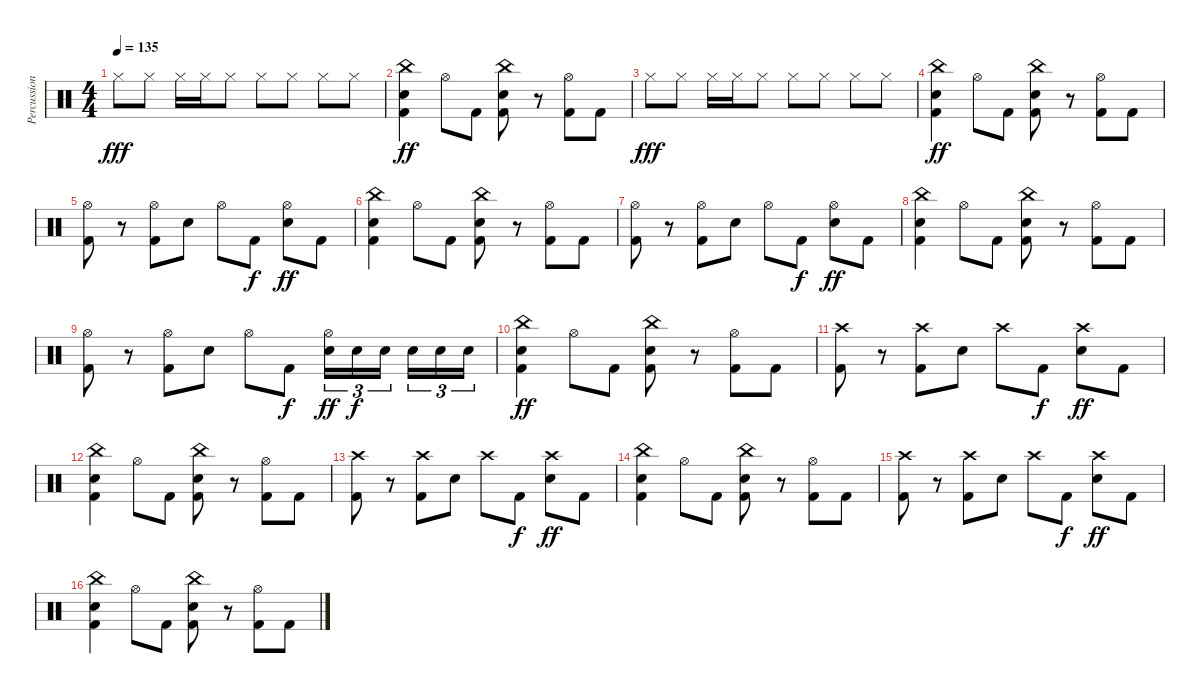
\track ("Percussion" "Percussion") {instrument percussion}
\staff {score}
\articulation defaults
\ts (4 4)
\tempo 135
\clef neutral
\ks c "Hi-Hat (closed)".8{dy fff} "Hi-Hat (closed)".8 "Hi-Hat (closed)".16 "Hi-Hat (closed)".16 "Hi-Hat (closed)".8 "Hi-Hat (closed)".8 "Hi-Hat (closed)".8 "Hi-Hat (closed)".8 "Hi-Hat (closed)".8
|
("China (hit)" "Snare (hit) 2" "Kick (hit) 2").4{dy ff} "Hi-Hat (open)".8 "Kick (hit) 2".8 ("China (hit)" "Snare (hit) 2" "Kick (hit) 2").8 r.8 ("Hi-Hat (open)" "Kick (hit) 2").8 "Kick (hit) 2".8 |
"Hi-Hat (closed)".8{dy fff} "Hi-Hat (closed)".8 "Hi-Hat (closed)".16 "Hi-Hat (closed)".16 "Hi-Hat (closed)".8 "Hi-Hat (closed)".8 "Hi-Hat (closed)".8 "Hi-Hat (closed)".8 "Hi-Hat (closed)".8 |
("China (hit)" "Snare (hit) 2" "Kick (hit) 2").4{dy ff} "Hi-Hat (open)".8 "Kick (hit) 2".8 ("China (hit)" "Snare (hit) 2" "Kick (hit) 2").8 r.8 ("Hi-Hat (open)" "Kick (hit) 2").8 "Kick (hit) 2".8 |
("Hi-Hat (open)" "Kick (hit) 2").8 r.8 ("Hi-Hat (open)" "Kick (hit) 2").8 "Electric Snare (hit)".8 "Hi-Hat (open)".8 "Kick (hit) 2".8{dy f} ("Hi-Hat (open)" "Electric Snare (hit)").8{dy ff} "Kick (hit) 2".8 |
("China (hit)" "Snare (hit) 2" "Kick (hit) 2").4 "Hi-Hat (open)".8 "Kick (hit) 2".8 ("China (hit)" "Snare (hit) 2" "Kick (hit) 2").8 r.8 ("Hi-Hat (open)" "Kick (hit) 2").8 "Kick (hit) 2".8 |
("Hi-Hat (open)" "Kick (hit) 2").8 r.8 ("Hi-Hat (open)" "Kick (hit) 2").8 "Electric Snare (hit)".8 "Hi-Hat (open)".8 "Kick (hit) 2".8{dy f} ("Hi-Hat (open)" "Electric Snare (hit)").8{dy ff} "Kick (hit) 2".8 |
("China (hit)" "Snare (hit) 2" "Kick (hit) 2").4 "Hi-Hat (open)".8 "Kick (hit) 2".8 ("China (hit)" "Snare (hit) 2" "Kick (hit) 2").8 r.8 ("Hi-Hat (open)" "Kick (hit) 2").8 "Kick (hit) 2".8 |
("Hi-Hat (open)" "Kick (hit) 2").8 r.8 ("Hi-Hat (open)" "Kick (hit) 2").8 "Electric Snare (hit)".8 "Hi-Hat (open)".8 "Kick (hit) 2".8{dy f} ("Hi-Hat (open)" "Electric Snare (hit)").16{tu (3 2) dy ff} "Electric Snare (hit)".16{tu (3 2) dy f} "Electric Snare (hit)".16{tu (3 2)} "Electric Snare (hit)".16{tu (3 2)} "Electric Snare (hit)".16{tu (3 2)} "Electric Snare (hit)".16{tu (3 2)} |
("China (hit)" "Snare (hit) 2" "Kick (hit) 2").4{dy ff} "Hi-Hat (open)".8 "Kick (hit) 2".8 ("China (hit)" "Snare (hit) 2" "Kick (hit) 2").8 r.8 ("Hi-Hat (open)" "Kick (hit) 2").8 "Kick (hit) 2".8 |
("Crash high (hit)" "Kick (hit) 2").8 r.8 ("Crash high (hit)" "Kick (hit) 2").8 "Electric Snare (hit)".8 "Crash high (hit)".8 "Kick (hit) 2".8{dy f} ("Crash high (hit)" "Electric Snare (hit)").8{dy ff} "Kick (hit) 2".8 |
("China (hit)" "Snare (hit) 2" "Kick (hit) 2").4 "Hi-Hat (open)".8 "Kick (hit) 2".8 ("China (hit)" "Snare (hit) 2" "Kick (hit) 2").8 r.8 ("Hi-Hat (open)" "Kick (hit) 2").8 "Kick (hit) 2".8 |
("Crash high (hit)" "Kick (hit) 2").8 r.8 ("Crash high (hit)" "Kick (hit) 2").8 "Electric Snare (hit)".8 "Crash high (hit)".8 "Kick (hit) 2".8{dy f} ("Crash high (hit)" "Electric Snare (hit)").8{dy ff} "Kick (hit) 2".8 |
("China (hit)" "Snare (hit) 2" "Kick (hit) 2").4 "Hi-Hat (open)".8 "Kick (hit) 2".8 ("China (hit)" "Snare (hit) 2" "Kick (hit) 2").8 r.8 ("Hi-Hat (open)" "Kick (hit) 2").8 "Kick (hit) 2".8 |
("Crash high (hit)" "Kick (hit) 2").8 r.8 ("Crash high (hit)" "Kick (hit) 2").8 "Electric Snare (hit)".8 "Crash high (hit)".8 "Kick (hit) 2".8{dy f} ("Crash high (hit)" "Electric Snare (hit)").8{dy ff} "Kick (hit) 2".8 |
("China (hit)" "Snare (hit) 2" "Kick (hit) 2").4 "Hi-Hat (open)".8 "Kick (hit) 2".8 ("China (hit)" "Snare (hit) 2" "Kick (hit) 2").8 r.8 ("Hi-Hat (open)" "Kick (hit) 2").8 "Kick (hit) 2".8
